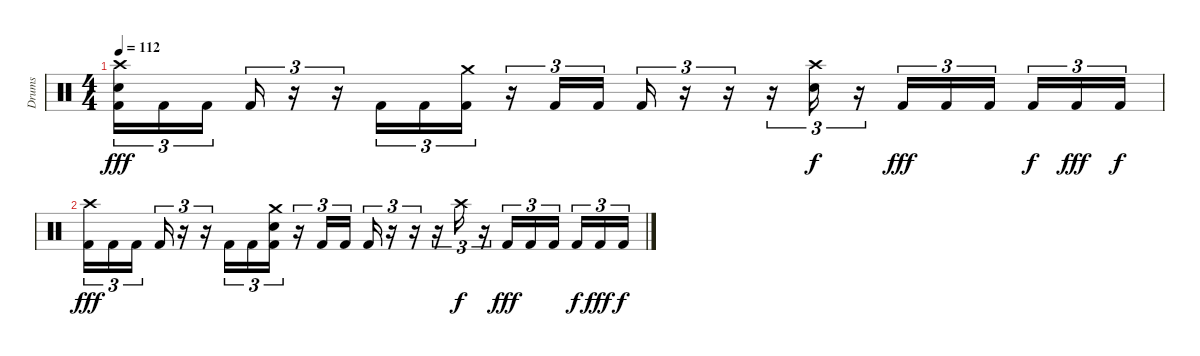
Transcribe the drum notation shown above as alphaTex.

\track ("Drums" "Drums") {instrument percussion}
\staff {score}
\articulation defaults
\ts (4 4)
\tempo 112
\clef neutral
\ks c
("Crash high (hit)" "Electric Snare (hit)" "Kick (hit) 2").16{tu (3 2) dy fff} "Kick (hit) 2".16{tu (3 2)} "Kick (hit) 2".16{tu (3 2)} "Kick (hit) 2".16{tu (3 2)} r.16{tu (3 2)} r.16{tu (3 2)} "Kick (hit) 2".16{tu (3 2)} "Kick (hit) 2".16{tu (3 2)} ("Crash medium (hit)" "Kick (hit) 2").16{tu (3 2)} r.16{tu (3 2)} "Kick (hit) 2".16{tu (3 2)} "Kick (hit) 2".16{tu (3 2)} "Kick (hit) 2".16{tu (3 2)} r.16{tu (3 2)} r.16{tu (3 2)} r.16{tu (3 2)} ("Crash high (hit)" "Electric Snare (hit)").16{tu (3 2) dy f} r.16{tu (3 2)} "Kick (hit) 2".16{tu (3 2) dy fff} "Kick (hit) 2".16{tu (3 2)} "Kick (hit) 2".16{tu (3 2)} "Kick (hit) 2".16{tu (3 2) dy f} "Kick (hit) 2".16{tu (3 2) dy fff} "Kick (hit) 2".16{tu (3 2) dy f} |
("Crash high (hit)" "Kick (hit) 2").16{tu (3 2) dy fff} "Kick (hit) 2".16{tu (3 2)} "Kick (hit) 2".16{tu (3 2)} "Kick (hit) 2".16{tu (3 2)} r.16{tu (3 2)} r.16{tu (3 2)} "Kick (hit) 2".16{tu (3 2)} "Kick (hit) 2".16{tu (3 2)} ("Crash medium (hit)" "Electric Snare (hit)" "Kick (hit) 2").16{tu (3 2)} r.16{tu (3 2)} "Kick (hit) 2".16{tu (3 2)} "Kick (hit) 2".16{tu (3 2)} "Kick (hit) 2".16{tu (3 2)} r.16{tu (3 2)} r.16{tu (3 2)} r.16{tu (3 2)} "Crash high (hit)".16{tu (3 2) dy f} r.16{tu (3 2)} "Kick (hit) 2".16{tu (3 2) dy fff} "Kick (hit) 2".16{tu (3 2)} "Kick (hit) 2".16{tu (3 2)} "Kick (hit) 2".16{tu (3 2) dy f} "Kick (hit) 2".16{tu (3 2) dy fff} "Kick (hit) 2".16{tu (3 2) dy f}
